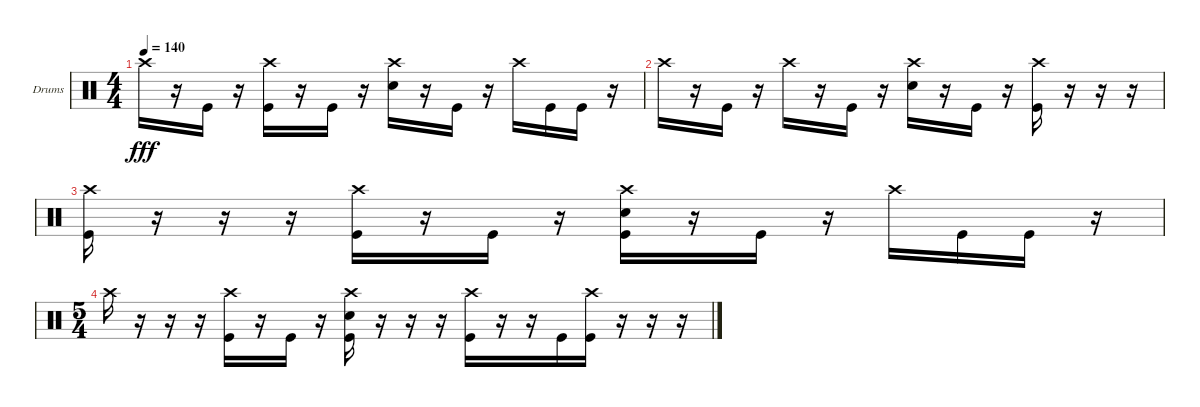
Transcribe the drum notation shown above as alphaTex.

\bracketExtendMode groupsimilarinstruments
\firstSystemTrackNameOrientation horizontal
\otherSystemsTrackNameOrientation horizontal
\track ("Drumkit" "Drums") {instrument percussion}
\staff {score}
\articulation defaults
\ts (4 4)
\tempo 140
\clef neutral
\ks c "Crash high (hit)".16{dy fff}
r.16 "Kick (hit)".16 r.16 ("Crash high (hit)" "Kick (hit)").16 r.16 "Kick (hit)".16 r.16 ("Crash high (hit)" "Snare (hit) 2").16 r.16 "Kick (hit)".16 r.16 "Crash high (hit)".16 "Kick (hit)".16 "Kick (hit)".16 r.16 |
"Crash high (hit)".16 r.16 "Kick (hit)".16 r.16 "Crash high (hit)".16 r.16 "Kick (hit)".16 r.16 ("Crash high (hit)" "Snare (hit) 2").16 r.16 "Kick (hit)".16 r.16 ("Crash high (hit)" "Kick (hit)").16 r.16 r.16 r.16 |
("Crash high (hit)" "Kick (hit)").16 r.16 r.16 r.16 ("Crash high (hit)" "Kick (hit)").16 r.16 "Kick (hit)".16 r.16 ("Crash high (hit)" "Snare (hit) 2" "Kick (hit)").16 r.16 "Kick (hit)".16 r.16 "Crash high (hit)".16 "Kick (hit)".16 "Kick (hit)".16 r.16 |
\ts (5 4)
\beaming (8 2 2 2 4)
"Crash high (hit)".16 r.16 r.16 r.16 ("Crash high (hit)" "Kick (hit)").16 r.16 "Kick (hit)".16 r.16 ("Crash high (hit)" "Snare (hit) 2" "Kick (hit)").16 r.16 r.16 r.16 ("Crash high (hit)" "Kick (hit)").16 r.16 r.16 "Kick (hit)".16 ("Crash high (hit)" "Kick (hit)").16 r.16 r.16 r.16
